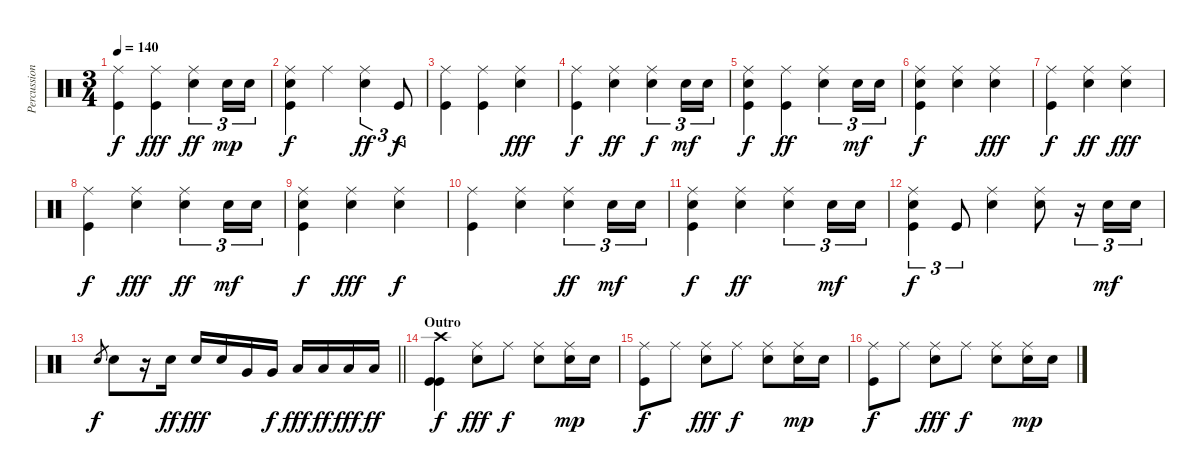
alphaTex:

\track ("Percussion" "Percussion") {instrument percussion}
\staff {score}
\articulation defaults
\ts (3 4)
\tempo 140
\clef neutral
\ks c
("Ride (middle)" "Kick (hit)").4{dy f} ("Ride (middle)" "Kick (hit)").4{dy fff} ("Ride (middle)" "Electric Snare (hit)").4{tu (3 2) dy ff} "Electric Snare (hit)".16{tu (3 2) dy mp} "Electric Snare (hit)".16{tu (3 2)} |
("Ride (middle)" "Electric Snare (hit)" "Kick (hit)").4{dy f} "Ride (middle)".4 ("Ride (middle)" "Electric Snare (hit)").4{tu (3 2) dy ff} "Kick (hit)".8{tu (3 2) dy f} |
("Ride (middle)" "Kick (hit)").4 ("Ride (middle)" "Kick (hit)").4 ("Ride (middle)" "Electric Snare (hit)").4{dy fff} |
("Ride (middle)" "Kick (hit)").4{dy f} ("Ride (middle)" "Electric Snare (hit)").4{dy ff} ("Ride (middle)" "Electric Snare (hit)").4{tu (3 2) dy f} "Electric Snare (hit)".16{tu (3 2) dy mf} "Electric Snare (hit)".16{tu (3 2)} |
("Ride (middle)" "Electric Snare (hit)" "Kick (hit)").4{dy f} ("Ride (middle)" "Kick (hit)").4{dy ff} ("Ride (middle)" "Electric Snare (hit)").4{tu (3 2)} "Electric Snare (hit)".16{tu (3 2) dy mf} "Electric Snare (hit)".16{tu (3 2)} |
("Ride (middle)" "Electric Snare (hit)" "Kick (hit)").4{dy f} ("Ride (middle)" "Electric Snare (hit)").4 ("Ride (middle)" "Electric Snare (hit)").4{dy fff} |
("Ride (middle)" "Kick (hit)").4{dy f} ("Ride (middle)" "Electric Snare (hit)").4{dy ff} ("Ride (middle)" "Electric Snare (hit)").4{dy fff} |
("Ride (middle)" "Kick (hit)").4{dy f} ("Ride (middle)" "Electric Snare (hit)").4{dy fff} ("Ride (middle)" "Electric Snare (hit)").4{tu (3 2) dy ff} "Electric Snare (hit)".16{tu (3 2) dy mf} "Electric Snare (hit)".16{tu (3 2)} |
("Ride (middle)" "Electric Snare (hit)" "Kick (hit)").4{dy f} ("Ride (middle)" "Electric Snare (hit)").4{dy fff} ("Ride (middle)" "Electric Snare (hit)").4{dy f} |
("Ride (middle)" "Kick (hit)").4 ("Ride (middle)" "Electric Snare (hit)").4 ("Ride (middle)" "Electric Snare (hit)").4{tu (3 2) dy ff} "Electric Snare (hit)".16{tu (3 2) dy mf} "Electric Snare (hit)".16{tu (3 2)} |
("Ride (middle)" "Electric Snare (hit)" "Kick (hit)").4{dy f} ("Ride (middle)" "Electric Snare (hit)").4{dy ff} ("Ride (middle)" "Electric Snare (hit)").4{tu (3 2)} "Electric Snare (hit)".16{tu (3 2) dy mf} "Electric Snare (hit)".16{tu (3 2)} |
("Ride (middle)" "Electric Snare (hit)" "Kick (hit)").4{tu (3 2) dy f} "Kick (hit)".8{tu (3 2)} ("Ride (middle)" "Electric Snare (hit)").4 ("Ride (middle)" "Electric Snare (hit)").8 r.16{tu (3 2)} "Electric Snare (hit)".16{tu (3 2) dy mf} "Electric Snare (hit)".16{tu (3 2)} |
\barLineRight lightlight "Electric Snare (hit)".8{gr dy f} "Electric Snare (hit)".8
r.16 "Electric Snare (hit)".16{dy ff} "Electric Snare (hit)".16{dy fff} "Electric Snare (hit)".16 "Very Low Tom (hit)".16 "Very Low Tom (hit)".16{dy f} "Low Floor Tom (hit)".16{dy fff} "Low Floor Tom (hit)".16{dy ff} "Low Floor Tom (hit)".16{dy fff} "Low Floor Tom (hit)".16{dy ff} |
\section ("" "Outro")
("Crash high (hit)" "Kick (hit)" "Kick (hit)").4{dy f} ("Ride (middle)" "Electric Snare (hit)").8{dy fff} "Ride (middle)".8{dy f} ("Ride (middle)" "Electric Snare (hit)").8 ("Ride (middle)" "Electric Snare (hit)").16{dy mp} "Electric Snare (hit)".16 |
("Ride (middle)" "Kick (hit)").8{dy f} "Ride (middle)".8 ("Ride (middle)" "Electric Snare (hit)").8{dy fff} "Ride (middle)".8{dy f} ("Ride (middle)" "Electric Snare (hit)").8 ("Ride (middle)" "Electric Snare (hit)").16{dy mp} "Electric Snare (hit)".16 |
("Ride (middle)" "Kick (hit)").8{dy f} "Ride (middle)".8 ("Ride (middle)" "Electric Snare (hit)").8{dy fff} "Ride (middle)".8{dy f} ("Ride (middle)" "Electric Snare (hit)").8 ("Ride (middle)" "Electric Snare (hit)").16{dy mp} "Electric Snare (hit)".16
